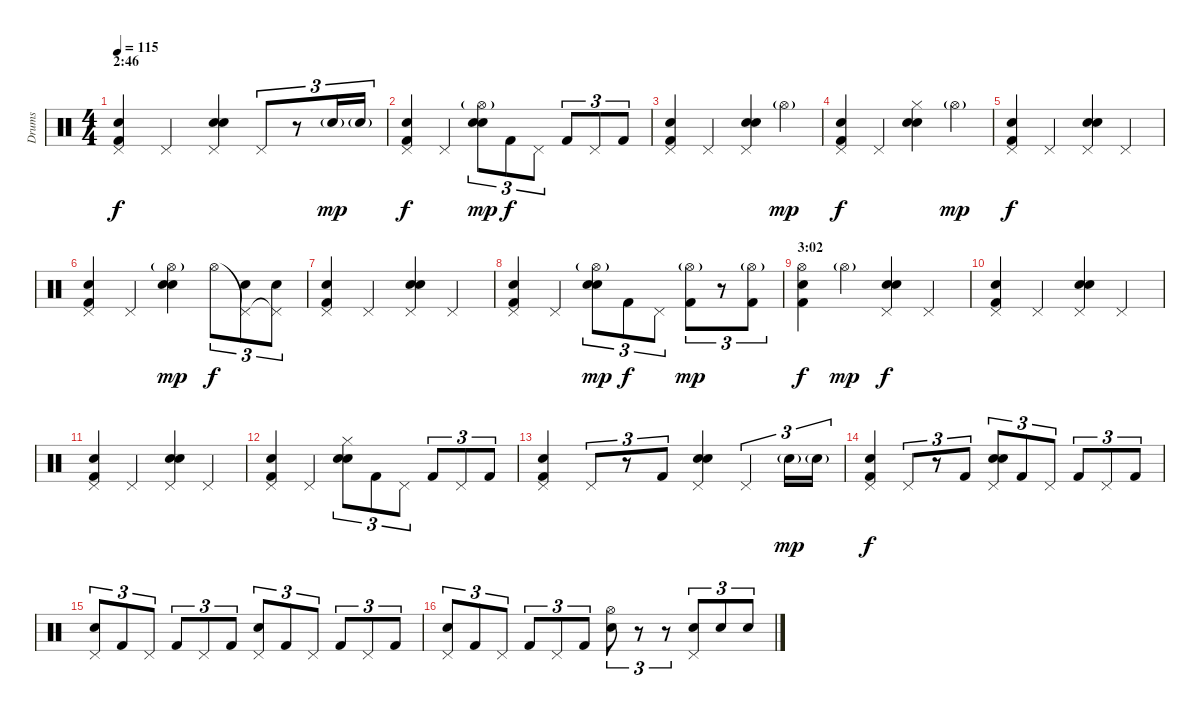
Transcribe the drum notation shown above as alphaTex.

\track ("Drums" "Drums") {instrument percussion}
\staff {score}
\articulation defaults
\ts (4 4)
\section ("" "2:46")
\tempo 115
\clef neutral
\ks c
("Pedal Hi-Hat (hit)" "Hand Clap (hit)" "Kick (hit) 2").4{dy f} "Pedal Hi-Hat (hit)".4 ("Pedal Hi-Hat (hit)" "Hand Clap (hit)" "Electric Snare (hit)").4 "Pedal Hi-Hat (hit)".8{tu (3 2)} r.8{tu (3 2)} "Electric Snare (hit)"{g}.16{tu (3 2) dy mp} "Electric Snare (hit)"{g}.16{tu (3 2)} |
("Pedal Hi-Hat (hit)" "Hand Clap (hit)" "Kick (hit) 2").4{dy f} "Pedal Hi-Hat (hit)".4 ("Hi-Hat (open)"{g} "Hand Clap (hit)" "Electric Snare (hit)").8{tu (3 2) dy mp} "Kick (hit) 2".8{tu (3 2) dy f} "Pedal Hi-Hat (hit)".8{tu (3 2)} "Kick (hit) 2".8{tu (3 2)} "Pedal Hi-Hat (hit)".8{tu (3 2)} "Kick (hit) 2".8{tu (3 2)} |
("Pedal Hi-Hat (hit)" "Hand Clap (hit)" "Kick (hit) 2").4 "Pedal Hi-Hat (hit)".4 ("Pedal Hi-Hat (hit)" "Hand Clap (hit)" "Electric Snare (hit)").4 "Hi-Hat (open)"{g}.4{dy mp} |
("Pedal Hi-Hat (hit)" "Hand Clap (hit)" "Kick (hit) 2").4{dy f} "Pedal Hi-Hat (hit)".4 ("Hi-Hat (closed)" "Hand Clap (hit)" "Electric Snare (hit)").4 "Hi-Hat (open)"{g}.4{dy mp} |
("Pedal Hi-Hat (hit)" "Hand Clap (hit)" "Kick (hit) 2").4{dy f} "Pedal Hi-Hat (hit)".4 ("Pedal Hi-Hat (hit)" "Hand Clap (hit)" "Electric Snare (hit)").4 "Pedal Hi-Hat (hit)".4 |
("Pedal Hi-Hat (hit)" "Hand Clap (hit)" "Kick (hit) 2").4 "Pedal Hi-Hat (hit)".4 ("Hi-Hat (open)"{g} "Hand Clap (hit)" "Electric Snare (hit)").4{dy mp} "Hi-Hat (open)".8{tu (3 2) dy f} ("Pedal Hi-Hat (hit)"{t} "Electric Snare (hit)").8{tu (3 2)} ("Pedal Hi-Hat (hit)"{t} "Electric Snare (hit)").8{tu (3 2)} |
("Pedal Hi-Hat (hit)" "Hand Clap (hit)" "Kick (hit) 2").4 "Pedal Hi-Hat (hit)".4 ("Pedal Hi-Hat (hit)" "Hand Clap (hit)" "Electric Snare (hit)").4 "Pedal Hi-Hat (hit)".4 |
("Pedal Hi-Hat (hit)" "Hand Clap (hit)" "Kick (hit) 2").4 "Pedal Hi-Hat (hit)".4 ("Hi-Hat (open)"{g} "Hand Clap (hit)" "Electric Snare (hit)").8{tu (3 2) dy mp} "Kick (hit) 2".8{tu (3 2) dy f} "Pedal Hi-Hat (hit)".8{tu (3 2)} ("Hi-Hat (open)"{g} "Kick (hit) 2").8{tu (3 2) dy mp} r.8{tu (3 2)} ("Hi-Hat (open)"{g} "Kick (hit) 2").8{tu (3 2)} |
\section ("" "3:02")
("Hi-Hat (open)" "Hand Clap (hit)" "Kick (hit) 2").4{dy f} "Hi-Hat (open)"{g}.4{dy mp} ("Pedal Hi-Hat (hit)" "Hand Clap (hit)" "Electric Snare (hit)").4{dy f} "Pedal Hi-Hat (hit)".4 |
("Pedal Hi-Hat (hit)" "Hand Clap (hit)" "Kick (hit) 2").4 "Pedal Hi-Hat (hit)".4 ("Pedal Hi-Hat (hit)" "Hand Clap (hit)" "Electric Snare (hit)").4 "Pedal Hi-Hat (hit)".4 |
("Pedal Hi-Hat (hit)" "Hand Clap (hit)" "Kick (hit) 2").4 "Pedal Hi-Hat (hit)".4 ("Pedal Hi-Hat (hit)" "Hand Clap (hit)" "Electric Snare (hit)").4 "Pedal Hi-Hat (hit)".4 |
("Pedal Hi-Hat (hit)" "Hand Clap (hit)" "Kick (hit) 2").4 "Pedal Hi-Hat (hit)".4 ("Hi-Hat (closed)" "Hand Clap (hit)" "Electric Snare (hit)").8{tu (3 2)} "Kick (hit) 2".8{tu (3 2)} "Pedal Hi-Hat (hit)".8{tu (3 2)} "Kick (hit) 2".8{tu (3 2)} "Pedal Hi-Hat (hit)".8{tu (3 2)} "Kick (hit) 2".8{tu (3 2)} |
("Pedal Hi-Hat (hit)" "Hand Clap (hit)" "Kick (hit) 2").4 "Pedal Hi-Hat (hit)".8{tu (3 2)} r.8{tu (3 2)} "Kick (hit) 2".8{tu (3 2)} ("Pedal Hi-Hat (hit)" "Hand Clap (hit)" "Electric Snare (hit)").4 "Pedal Hi-Hat (hit)".4{tu (3 2)} "Electric Snare (hit)"{g}.16{tu (3 2) dy mp} "Electric Snare (hit)"{g}.16{tu (3 2)} |
("Pedal Hi-Hat (hit)" "Hand Clap (hit)" "Kick (hit) 2").4{dy f} "Pedal Hi-Hat (hit)".8{tu (3 2)} r.8{tu (3 2)} "Kick (hit) 2".8{tu (3 2)} ("Pedal Hi-Hat (hit)" "Hand Clap (hit)" "Electric Snare (hit)").8{tu (3 2)} "Kick (hit) 2".8{tu (3 2)} "Pedal Hi-Hat (hit)".8{tu (3 2)} "Kick (hit) 2".8{tu (3 2)} "Pedal Hi-Hat (hit)".8{tu (3 2)} "Kick (hit) 2".8{tu (3 2)} |
("Pedal Hi-Hat (hit)" "Hand Clap (hit)").8{tu (3 2)} "Kick (hit) 2".8{tu (3 2)} "Pedal Hi-Hat (hit)".8{tu (3 2)} "Kick (hit) 2".8{tu (3 2)} "Pedal Hi-Hat (hit)".8{tu (3 2)} "Kick (hit) 2".8{tu (3 2)} ("Pedal Hi-Hat (hit)" "Hand Clap (hit)").8{tu (3 2)} "Kick (hit) 2".8{tu (3 2)} "Pedal Hi-Hat (hit)".8{tu (3 2)} "Kick (hit) 2".8{tu (3 2)} "Pedal Hi-Hat (hit)".8{tu (3 2)} "Kick (hit) 2".8{tu (3 2)} |
("Pedal Hi-Hat (hit)" "Hand Clap (hit)").8{tu (3 2)} "Kick (hit) 2".8{tu (3 2)} "Pedal Hi-Hat (hit)".8{tu (3 2)} "Kick (hit) 2".8{tu (3 2)} "Pedal Hi-Hat (hit)".8{tu (3 2)} "Kick (hit) 2".8{tu (3 2)} ("Hi-Hat (open)" "Hand Clap (hit)").8{tu (3 2)} r.8{tu (3 2)} r.8{tu (3 2)} ("Pedal Hi-Hat (hit)" "Electric Snare (hit)").8{tu (3 2)} "Electric Snare (hit)".8{tu (3 2)} "Electric Snare (hit)".8{tu (3 2)}
